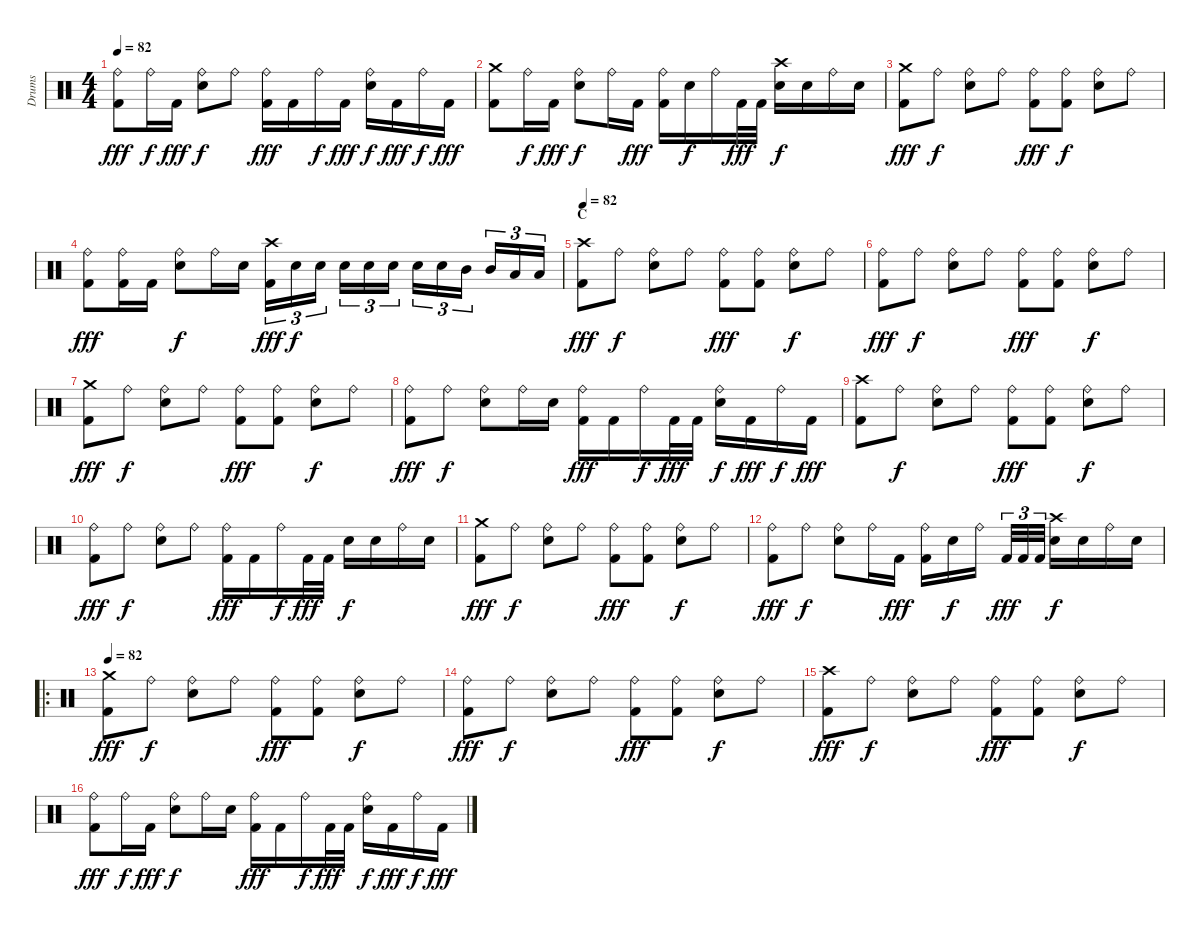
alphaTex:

\track ("Drums" "Drums") {instrument percussion}
\staff {score}
\articulation defaults
\ts (4 4)
\tempo 82
\clef neutral
\ks c
("Ride (bell)" "Kick (hit) 2").8{dy fff} "Ride (bell)".16{dy f} "Kick (hit) 2".16{dy fff} ("Ride (bell)" "Snare (hit) 2").8{dy f} "Ride (bell)".8 ("Ride (bell)" "Kick (hit) 2").16{dy fff} "Kick (hit) 2".16 "Ride (bell)".16{dy f} "Kick (hit) 2".16{dy fff} ("Ride (bell)" "Snare (hit) 2").16{dy f} "Kick (hit) 2".16{dy fff} "Ride (bell)".16{dy f} "Kick (hit) 2".16{dy fff} |
("Crash medium (hit)" "Kick (hit) 2").8 "Ride (bell)".16{dy f} "Kick (hit) 2".16{dy fff} ("Ride (bell)" "Snare (hit) 2").8{dy f} "Ride (bell)".16 "Kick (hit) 2".16{dy fff} ("Ride (bell)" "Kick (hit) 2").16 "Snare (hit) 2".16{dy f} "Ride (bell)".16 "Kick (hit) 2".32{dy fff} "Kick (hit) 2".32 ("Crash high (hit)" "Snare (hit) 2").16{dy f} "Snare (hit) 2".16 "Ride (bell)".16 "Snare (hit) 2".16 |
("Crash medium (hit)" "Kick (hit) 2").8{dy fff} "Ride (bell)".8{dy f} ("Ride (bell)" "Snare (hit) 2").8 "Ride (bell)".8 ("Ride (bell)" "Kick (hit) 2").8{dy fff} ("Ride (bell)" "Kick (hit) 2").8{dy f} ("Ride (bell)" "Snare (hit) 2").8 "Ride (bell)".8 |
("Ride (bell)" "Kick (hit) 2").8{dy fff} ("Ride (bell)" "Kick (hit) 2").16 "Kick (hit) 2".16 ("Ride (bell)" "Snare (hit) 2").8{dy f} "Ride (bell)".16 "Snare (hit) 2".16 ("Crash high (hit)" "Kick (hit) 2").16{tu (3 2) dy fff} "Snare (hit) 2".16{tu (3 2) dy f} "Snare (hit) 2".16{tu (3 2)} "Snare (hit) 2".16{tu (3 2)} "Snare (hit) 2".16{tu (3 2)} "Snare (hit) 2".16{tu (3 2)} "Snare (hit) 2".16{tu (3 2)} "Snare (hit) 2".16{tu (3 2)} "Mid Tom (hit)".16{tu (3 2)} "Mid Tom (hit)".16{tu (3 2)} "Low Tom (hit)".16{tu (3 2)} "Low Tom (hit)".16{tu (3 2)} |
\section ("" "C")
\tempo 82
("Crash high (hit)" "Kick (hit) 2").8{dy fff} "Ride (bell)".8{dy f} ("Ride (bell)" "Snare (hit) 2").8 "Ride (bell)".8 ("Ride (bell)" "Kick (hit) 2").8{dy fff} ("Ride (bell)" "Kick (hit) 2").8 ("Ride (bell)" "Snare (hit) 2").8{dy f} "Ride (bell)".8 |
("Ride (bell)" "Kick (hit) 2").8{dy fff} "Ride (bell)".8{dy f} ("Ride (bell)" "Snare (hit) 2").8 "Ride (bell)".8 ("Ride (bell)" "Kick (hit) 2").8{dy fff} ("Ride (bell)" "Kick (hit) 2").8 ("Ride (bell)" "Snare (hit) 2").8{dy f} "Ride (bell)".8 |
("Crash medium (hit)" "Kick (hit) 2").8{dy fff} "Ride (bell)".8{dy f} ("Ride (bell)" "Snare (hit) 2").8 "Ride (bell)".8 ("Ride (bell)" "Kick (hit) 2").8{dy fff} ("Ride (bell)" "Kick (hit) 2").8 ("Ride (bell)" "Snare (hit) 2").8{dy f} "Ride (bell)".8 |
("Ride (bell)" "Kick (hit) 2").8{dy fff} "Ride (bell)".8{dy f} ("Ride (bell)" "Snare (hit) 2").8 "Ride (bell)".16 "Snare (hit) 2".16 ("Ride (bell)" "Kick (hit) 2").16{dy fff} "Kick (hit) 2".16 "Ride (bell)".16{dy f} "Kick (hit) 2".32{dy fff} "Kick (hit) 2".32 ("Ride (bell)" "Snare (hit) 2").16{dy f} "Kick (hit) 2".16{dy fff} "Ride (bell)".16{dy f} "Kick (hit) 2".16{dy fff} |
("Crash high (hit)" "Kick (hit) 2").8 "Ride (bell)".8{dy f} ("Ride (bell)" "Snare (hit) 2").8 "Ride (bell)".8 ("Ride (bell)" "Kick (hit) 2").8{dy fff} ("Ride (bell)" "Kick (hit) 2").8 ("Ride (bell)" "Snare (hit) 2").8{dy f} "Ride (bell)".8 |
("Ride (bell)" "Kick (hit) 2").8{dy fff} "Ride (bell)".8{dy f} ("Ride (bell)" "Snare (hit) 2").8 "Ride (bell)".8 ("Ride (bell)" "Kick (hit) 2").16{dy fff} "Kick (hit) 2".16 "Ride (bell)".16{dy f} "Kick (hit) 2".32{dy fff} "Kick (hit) 2".32 "Snare (hit) 2".16{dy f} "Snare (hit) 2".16 "Ride (bell)".16 "Snare (hit) 2".16 |
("Crash medium (hit)" "Kick (hit) 2").8{dy fff} "Ride (bell)".8{dy f} ("Ride (bell)" "Snare (hit) 2").8 "Ride (bell)".8 ("Ride (bell)" "Kick (hit) 2").8{dy fff} ("Ride (bell)" "Kick (hit) 2").8 ("Ride (bell)" "Snare (hit) 2").8{dy f} "Ride (bell)".8 |
("Ride (bell)" "Kick (hit) 2").8{dy fff} "Ride (bell)".8{dy f} ("Ride (bell)" "Snare (hit) 2").8 "Ride (bell)".16 "Kick (hit) 2".16{dy fff} ("Ride (bell)" "Kick (hit) 2").16 "Snare (hit) 2".16{dy f} "Ride (bell)".16 "Kick (hit) 2".32{tu (3 2) dy fff} "Kick (hit) 2".32{tu (3 2)} "Kick (hit) 2".32{tu (3 2)} ("Crash high (hit)" "Snare (hit) 2").16{dy f} "Snare (hit) 2".16 "Ride (bell)".16 "Snare (hit) 2".16 |
\ro
\tempo 82
("Crash medium (hit)" "Kick (hit) 2").8{dy fff} "Ride (bell)".8{dy f} ("Ride (bell)" "Snare (hit) 2").8 "Ride (bell)".8 ("Ride (bell)" "Kick (hit) 2").8{dy fff} ("Ride (bell)" "Kick (hit) 2").8 ("Ride (bell)" "Snare (hit) 2").8{dy f} "Ride (bell)".8 |
("Ride (bell)" "Kick (hit) 2").8{dy fff} "Ride (bell)".8{dy f} ("Ride (bell)" "Snare (hit) 2").8 "Ride (bell)".8 ("Ride (bell)" "Kick (hit) 2").8{dy fff} ("Ride (bell)" "Kick (hit) 2").8 ("Ride (bell)" "Snare (hit) 2").8{dy f} "Ride (bell)".8 |
("Crash high (hit)" "Kick (hit) 2").8{dy fff} "Ride (bell)".8{dy f} ("Ride (bell)" "Snare (hit) 2").8 "Ride (bell)".8 ("Ride (bell)" "Kick (hit) 2").8{dy fff} ("Ride (bell)" "Kick (hit) 2").8 ("Ride (bell)" "Snare (hit) 2").8{dy f} "Ride (bell)".8 |
("Ride (bell)" "Kick (hit) 2").8{dy fff} "Ride (bell)".16{dy f} "Kick (hit) 2".16{dy fff} ("Ride (bell)" "Snare (hit) 2").8{dy f} "Ride (bell)".16 "Snare (hit) 2".16 ("Ride (bell)" "Kick (hit) 2").16{dy fff} "Kick (hit) 2".16 "Ride (bell)".16{dy f} "Kick (hit) 2".32{dy fff} "Kick (hit) 2".32 ("Ride (bell)" "Snare (hit) 2").16{dy f} "Kick (hit) 2".16{dy fff} "Ride (bell)".16{dy f} "Kick (hit) 2".16{dy fff}
